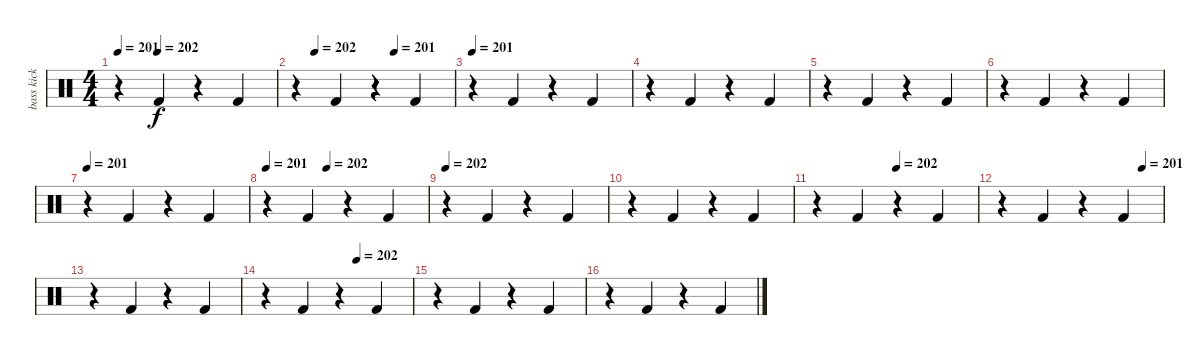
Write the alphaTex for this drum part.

\track ("bass kick" "bass kick") {instrument percussion}
\staff {score}
\articulation defaults
\ts (4 4)
\tempo 201
\tempo (202 0.25)
\clef neutral
\ks c
r.4{dy f} "Kick (hit) 2".4 r.4 "Kick (hit) 2".4 |
\tempo (202 0.125)
\tempo (201 0.625)
r.4 "Kick (hit) 2".4 r.4 "Kick (hit) 2".4 |
\tempo 201
r.4 "Kick (hit) 2".4 r.4 "Kick (hit) 2".4 |
r.4 "Kick (hit) 2".4 r.4 "Kick (hit) 2".4 |
r.4 "Kick (hit) 2".4 r.4 "Kick (hit) 2".4 |
r.4 "Kick (hit) 2".4 r.4 "Kick (hit) 2".4 |
\tempo 201
r.4 "Kick (hit) 2".4 r.4 "Kick (hit) 2".4 |
\tempo 201
\tempo (202 0.375)
r.4 "Kick (hit) 2".4 r.4 "Kick (hit) 2".4 |
\tempo 202
r.4 "Kick (hit) 2".4 r.4 "Kick (hit) 2".4 |
r.4 "Kick (hit) 2".4 r.4 "Kick (hit) 2".4 |
\tempo (202 0.5)
r.4 "Kick (hit) 2".4 r.4 "Kick (hit) 2".4 |
\tempo (201 0.875)
r.4 "Kick (hit) 2".4 r.4 "Kick (hit) 2".4 |
r.4 "Kick (hit) 2".4 r.4 "Kick (hit) 2".4 |
\tempo (202 0.625)
r.4 "Kick (hit) 2".4 r.4 "Kick (hit) 2".4 |
r.4 "Kick (hit) 2".4 r.4 "Kick (hit) 2".4 |
r.4 "Kick (hit) 2".4 r.4 "Kick (hit) 2".4
